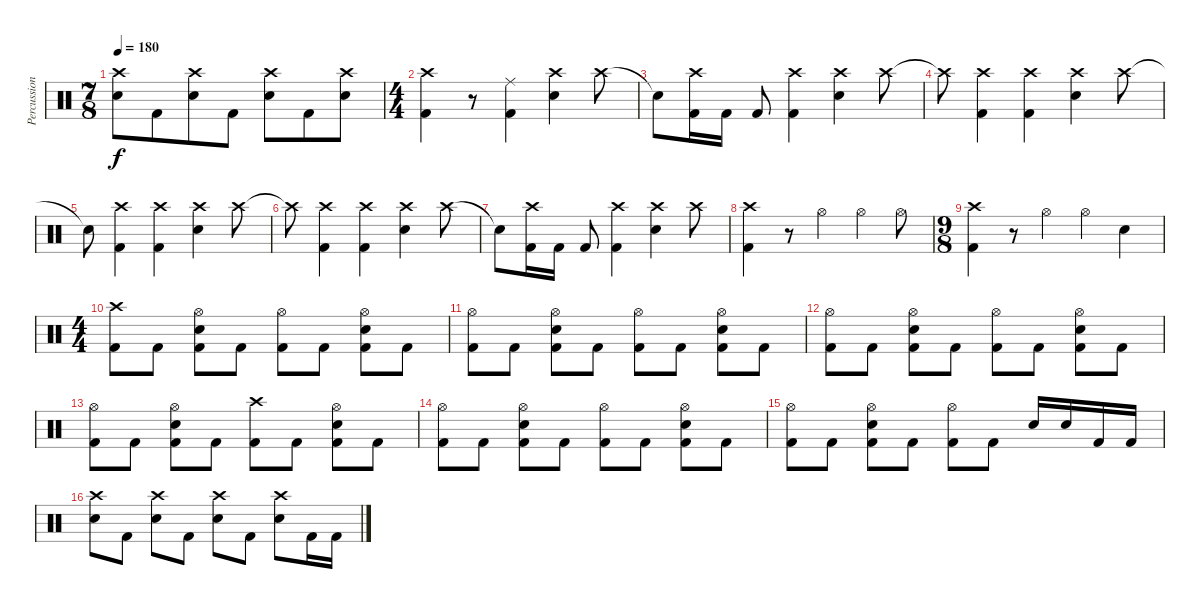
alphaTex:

\track ("Percussion" "Percussion") {instrument percussion}
\staff {score}
\articulation defaults
\ts (7 8)
\tempo 180
\clef neutral
\ks c
("Crash high (hit)" "Snare (hit) 2").8{dy f} "Kick (hit) 2".8 ("Crash high (hit)" "Snare (hit) 2").8 "Kick (hit) 2".8 ("Crash high (hit)" "Snare (hit) 2").8 "Kick (hit) 2".8 ("Crash high (hit)" "Snare (hit) 2").8 |
\ts (4 4)
("Crash high (hit)" "Kick (hit) 2").4 r.8 ("Ride (middle)" "Kick (hit) 2").4 ("Crash high (hit)" "Snare (hit) 2").4 "Crash high (hit)".8 |
"Snare (hit)"{t}.8 ("Crash high (hit)" "Kick (hit) 2").16 "Kick (hit) 2".16 "Kick (hit) 2".8 ("Crash high (hit)" "Kick (hit) 2").4 ("Crash high (hit)" "Snare (hit) 2").4 "Crash high (hit)".8 |
"Crash high (hit)"{t}.8 ("Crash high (hit)" "Kick (hit) 2").4 ("Crash high (hit)" "Kick (hit) 2").4 ("Crash high (hit)" "Snare (hit) 2").4 "Crash high (hit)".8 |
"Snare (hit)"{t}.8 ("Crash high (hit)" "Kick (hit) 2").4 ("Crash high (hit)" "Kick (hit) 2").4 ("Crash high (hit)" "Snare (hit) 2").4 "Crash high (hit)".8 |
"Crash high (hit)"{t}.8 ("Crash high (hit)" "Kick (hit) 2").4 ("Crash high (hit)" "Kick (hit) 2").4 ("Crash high (hit)" "Snare (hit) 2").4 "Crash high (hit)".8 |
"Snare (hit)"{t}.8 ("Crash high (hit)" "Kick (hit) 2").16 "Kick (hit) 2".16 "Kick (hit) 2".8 ("Crash high (hit)" "Kick (hit) 2").4 ("Crash high (hit)" "Snare (hit) 2").4 "Crash high (hit)".8 |
("Crash high (hit)" "Kick (hit) 2").4 r.8 "Hi-Hat (open)".4 "Hi-Hat (open)".4 "Hi-Hat (open)".8 |
\ts (9 8)
("Crash high (hit)" "Kick (hit) 2").4 r.8 "Hi-Hat (open)".4 "Hi-Hat (open)".4 "Snare (hit) 2".4 |
\ts (4 4)
("Crash high (hit)" "Kick (hit) 2").8 "Kick (hit) 2".8 ("Hi-Hat (open)" "Snare (hit) 2" "Kick (hit) 2").8 "Kick (hit) 2".8 ("Hi-Hat (open)" "Kick (hit) 2").8 "Kick (hit) 2".8 ("Hi-Hat (open)" "Snare (hit) 2" "Kick (hit) 2").8 "Kick (hit) 2".8 |
("Hi-Hat (open)" "Kick (hit) 2").8 "Kick (hit) 2".8 ("Hi-Hat (open)" "Snare (hit) 2" "Kick (hit) 2").8 "Kick (hit) 2".8 ("Hi-Hat (open)" "Kick (hit) 2").8 "Kick (hit) 2".8 ("Hi-Hat (open)" "Snare (hit) 2" "Kick (hit) 2").8 "Kick (hit) 2".8 |
("Hi-Hat (open)" "Kick (hit) 2").8 "Kick (hit) 2".8 ("Hi-Hat (open)" "Snare (hit) 2" "Kick (hit) 2").8 "Kick (hit) 2".8 ("Hi-Hat (open)" "Kick (hit) 2").8 "Kick (hit) 2".8 ("Hi-Hat (open)" "Snare (hit) 2" "Kick (hit) 2").8 "Kick (hit) 2".8 |
("Hi-Hat (open)" "Kick (hit) 2").8 "Kick (hit) 2".8 ("Hi-Hat (open)" "Snare (hit) 2" "Kick (hit) 2").8 "Kick (hit) 2".8 ("Crash high (hit)" "Kick (hit) 2").8 "Kick (hit) 2".8 ("Hi-Hat (open)" "Snare (hit) 2" "Kick (hit) 2").8 "Kick (hit) 2".8 |
("Hi-Hat (open)" "Kick (hit) 2").8 "Kick (hit) 2".8 ("Hi-Hat (open)" "Snare (hit) 2" "Kick (hit) 2").8 "Kick (hit) 2".8 ("Hi-Hat (open)" "Kick (hit) 2").8 "Kick (hit) 2".8 ("Hi-Hat (open)" "Snare (hit) 2" "Kick (hit) 2").8 "Kick (hit) 2".8 |
("Hi-Hat (open)" "Kick (hit) 2").8 "Kick (hit) 2".8 ("Hi-Hat (open)" "Snare (hit) 2" "Kick (hit) 2").8 "Kick (hit) 2".8 ("Hi-Hat (open)" "Kick (hit) 2").8 "Kick (hit) 2".8 "Snare (hit) 2".16 "Snare (hit) 2".16 "Kick (hit) 2".16 "Kick (hit) 2".16 |
("Crash high (hit)" "Snare (hit) 2").8 "Kick (hit) 2".8 ("Crash high (hit)" "Snare (hit) 2").8 "Kick (hit) 2".8 ("Crash high (hit)" "Snare (hit) 2").8 "Kick (hit) 2".8 ("Crash high (hit)" "Snare (hit) 2").8 "Kick (hit) 2".16 "Kick (hit) 2".16
